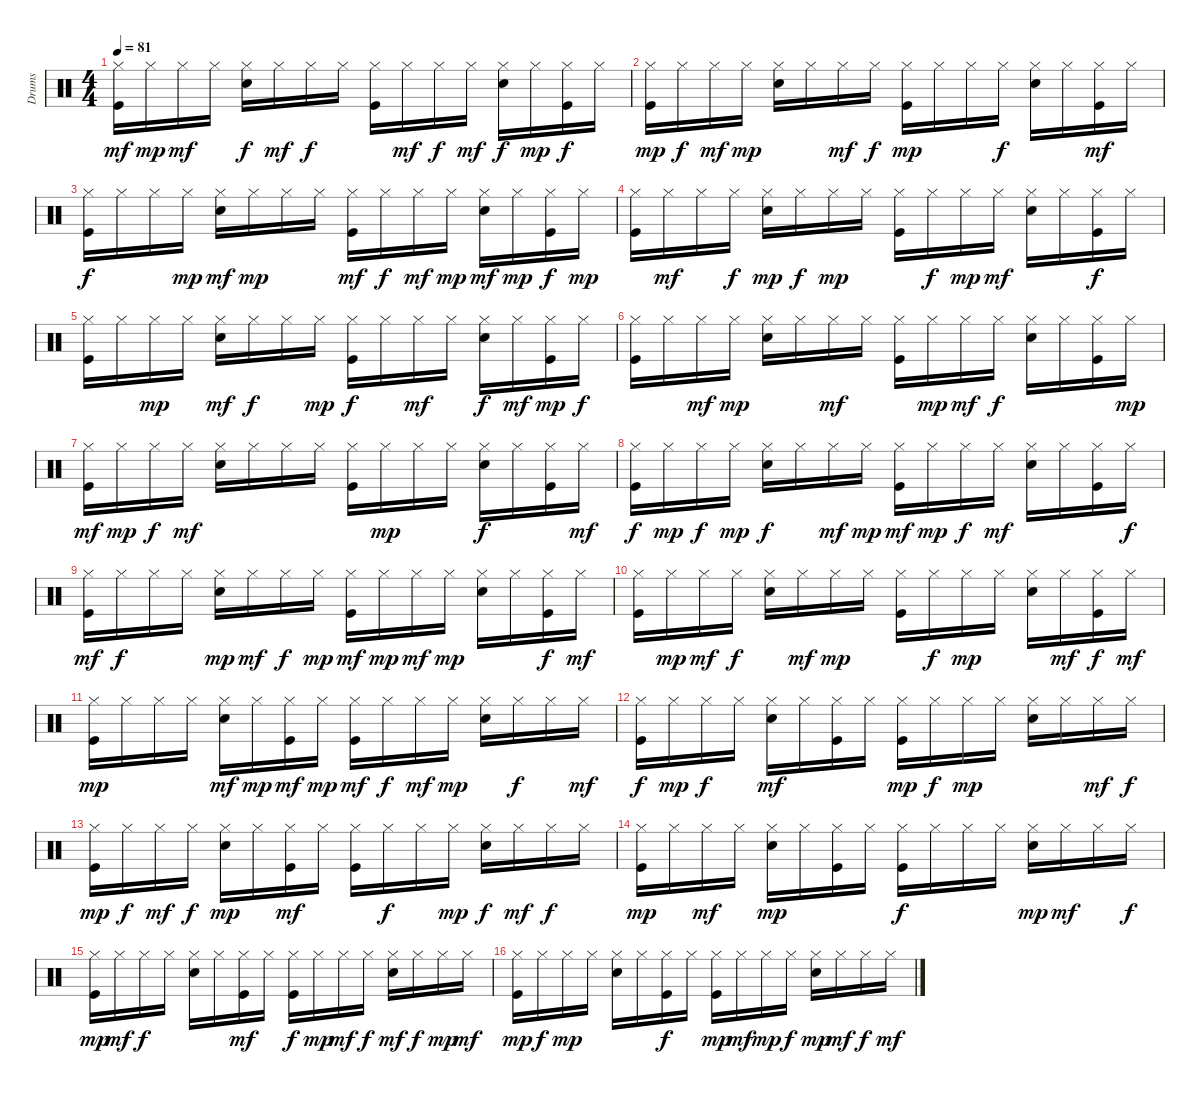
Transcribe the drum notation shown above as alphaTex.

\track ("Drums" "Drums") {instrument percussion}
\staff {score}
\articulation defaults
\ts (4 4)
\tempo 81
\clef neutral
\ks c
("Kick (hit)" "Hi-Hat (closed)").16{dy mf} "Hi-Hat (closed)".16{dy mp} "Hi-Hat (closed)".16{dy mf} "Hi-Hat (closed)".16 ("Electric Snare (hit)" "Hi-Hat (closed)").16{dy f} "Hi-Hat (closed)".16{dy mf} "Hi-Hat (closed)".16{dy f} "Hi-Hat (closed)".16 ("Kick (hit)" "Hi-Hat (closed)").16 "Hi-Hat (closed)".16{dy mf} "Hi-Hat (closed)".16{dy f} "Hi-Hat (closed)".16{dy mf} ("Electric Snare (hit)" "Hi-Hat (closed)").16{dy f} "Hi-Hat (closed)".16{dy mp} ("Kick (hit)" "Hi-Hat (closed)").16{dy f} "Hi-Hat (closed)".16 |
("Kick (hit)" "Hi-Hat (closed)").16{dy mp} "Hi-Hat (closed)".16{dy f} "Hi-Hat (closed)".16{dy mf} "Hi-Hat (closed)".16{dy mp} ("Electric Snare (hit)" "Hi-Hat (closed)").16 "Hi-Hat (closed)".16 "Hi-Hat (closed)".16{dy mf} "Hi-Hat (closed)".16{dy f} ("Kick (hit)" "Hi-Hat (closed)").16{dy mp} "Hi-Hat (closed)".16 "Hi-Hat (closed)".16 "Hi-Hat (closed)".16{dy f} ("Electric Snare (hit)" "Hi-Hat (closed)").16 "Hi-Hat (closed)".16 ("Kick (hit)" "Hi-Hat (closed)").16{dy mf} "Hi-Hat (closed)".16 |
("Kick (hit)" "Hi-Hat (closed)").16{dy f} "Hi-Hat (closed)".16 "Hi-Hat (closed)".16 "Hi-Hat (closed)".16{dy mp} ("Electric Snare (hit)" "Hi-Hat (closed)").16{dy mf} "Hi-Hat (closed)".16{dy mp} "Hi-Hat (closed)".16 "Hi-Hat (closed)".16 ("Kick (hit)" "Hi-Hat (closed)").16{dy mf} "Hi-Hat (closed)".16{dy f} "Hi-Hat (closed)".16{dy mf} "Hi-Hat (closed)".16{dy mp} ("Electric Snare (hit)" "Hi-Hat (closed)").16{dy mf} "Hi-Hat (closed)".16{dy mp} ("Kick (hit)" "Hi-Hat (closed)").16{dy f} "Hi-Hat (closed)".16{dy mp} |
("Kick (hit)" "Hi-Hat (closed)").16 "Hi-Hat (closed)".16{dy mf} "Hi-Hat (closed)".16 "Hi-Hat (closed)".16{dy f} ("Electric Snare (hit)" "Hi-Hat (closed)").16{dy mp} "Hi-Hat (closed)".16{dy f} "Hi-Hat (closed)".16{dy mp} "Hi-Hat (closed)".16 ("Kick (hit)" "Hi-Hat (closed)").16 "Hi-Hat (closed)".16{dy f} "Hi-Hat (closed)".16{dy mp} "Hi-Hat (closed)".16{dy mf} ("Electric Snare (hit)" "Hi-Hat (closed)").16 "Hi-Hat (closed)".16 ("Kick (hit)" "Hi-Hat (closed)").16{dy f} "Hi-Hat (closed)".16 |
("Kick (hit)" "Hi-Hat (closed)").16 "Hi-Hat (closed)".16 "Hi-Hat (closed)".16{dy mp} "Hi-Hat (closed)".16 ("Electric Snare (hit)" "Hi-Hat (closed)").16{dy mf} "Hi-Hat (closed)".16{dy f} "Hi-Hat (closed)".16 "Hi-Hat (closed)".16{dy mp} ("Kick (hit)" "Hi-Hat (closed)").16{dy f} "Hi-Hat (closed)".16 "Hi-Hat (closed)".16{dy mf} "Hi-Hat (closed)".16 ("Electric Snare (hit)" "Hi-Hat (closed)").16{dy f} "Hi-Hat (closed)".16{dy mf} ("Kick (hit)" "Hi-Hat (closed)").16{dy mp} "Hi-Hat (closed)".16{dy f} |
("Kick (hit)" "Hi-Hat (closed)").16 "Hi-Hat (closed)".16 "Hi-Hat (closed)".16{dy mf} "Hi-Hat (closed)".16{dy mp} ("Electric Snare (hit)" "Hi-Hat (closed)").16 "Hi-Hat (closed)".16 "Hi-Hat (closed)".16{dy mf} "Hi-Hat (closed)".16 ("Kick (hit)" "Hi-Hat (closed)").16 "Hi-Hat (closed)".16{dy mp} "Hi-Hat (closed)".16{dy mf} "Hi-Hat (closed)".16{dy f} ("Electric Snare (hit)" "Hi-Hat (closed)").16 "Hi-Hat (closed)".16 ("Kick (hit)" "Hi-Hat (closed)").16 "Hi-Hat (closed)".16{dy mp} |
("Kick (hit)" "Hi-Hat (closed)").16{dy mf} "Hi-Hat (closed)".16{dy mp} "Hi-Hat (closed)".16{dy f} "Hi-Hat (closed)".16{dy mf} ("Electric Snare (hit)" "Hi-Hat (closed)").16 "Hi-Hat (closed)".16 "Hi-Hat (closed)".16 "Hi-Hat (closed)".16 ("Kick (hit)" "Hi-Hat (closed)").16 "Hi-Hat (closed)".16{dy mp} "Hi-Hat (closed)".16 "Hi-Hat (closed)".16 ("Electric Snare (hit)" "Hi-Hat (closed)").16{dy f} "Hi-Hat (closed)".16 ("Kick (hit)" "Hi-Hat (closed)").16 "Hi-Hat (closed)".16{dy mf} |
("Kick (hit)" "Hi-Hat (closed)").16{dy f} "Hi-Hat (closed)".16{dy mp} "Hi-Hat (closed)".16{dy f} "Hi-Hat (closed)".16{dy mp} ("Electric Snare (hit)" "Hi-Hat (closed)").16{dy f} "Hi-Hat (closed)".16 "Hi-Hat (closed)".16{dy mf} "Hi-Hat (closed)".16{dy mp} ("Kick (hit)" "Hi-Hat (closed)").16{dy mf} "Hi-Hat (closed)".16{dy mp} "Hi-Hat (closed)".16{dy f} "Hi-Hat (closed)".16{dy mf} ("Electric Snare (hit)" "Hi-Hat (closed)").16 "Hi-Hat (closed)".16 ("Kick (hit)" "Hi-Hat (closed)").16 "Hi-Hat (closed)".16{dy f} |
("Kick (hit)" "Hi-Hat (closed)").16{dy mf} "Hi-Hat (closed)".16{dy f} "Hi-Hat (closed)".16 "Hi-Hat (closed)".16 ("Electric Snare (hit)" "Hi-Hat (closed)").16{dy mp} "Hi-Hat (closed)".16{dy mf} "Hi-Hat (closed)".16{dy f} "Hi-Hat (closed)".16{dy mp} ("Kick (hit)" "Hi-Hat (closed)").16{dy mf} "Hi-Hat (closed)".16{dy mp} "Hi-Hat (closed)".16{dy mf} "Hi-Hat (closed)".16{dy mp} ("Electric Snare (hit)" "Hi-Hat (closed)").16 "Hi-Hat (closed)".16 ("Kick (hit)" "Hi-Hat (closed)").16{dy f} "Hi-Hat (closed)".16{dy mf} |
("Kick (hit)" "Hi-Hat (closed)").16 "Hi-Hat (closed)".16{dy mp} "Hi-Hat (closed)".16{dy mf} "Hi-Hat (closed)".16{dy f} ("Electric Snare (hit)" "Hi-Hat (closed)").16 "Hi-Hat (closed)".16{dy mf} "Hi-Hat (closed)".16{dy mp} "Hi-Hat (closed)".16 ("Kick (hit)" "Hi-Hat (closed)").16 "Hi-Hat (closed)".16{dy f} "Hi-Hat (closed)".16{dy mp} "Hi-Hat (closed)".16 ("Electric Snare (hit)" "Hi-Hat (closed)").16 "Hi-Hat (closed)".16{dy mf} ("Kick (hit)" "Hi-Hat (closed)").16{dy f} "Hi-Hat (closed)".16{dy mf} |
("Kick (hit)" "Hi-Hat (closed)").16{dy mp} "Hi-Hat (closed)".16 "Hi-Hat (closed)".16 "Hi-Hat (closed)".16 ("Electric Snare (hit)" "Hi-Hat (closed)").16{dy mf} "Hi-Hat (closed)".16{dy mp} ("Kick (hit)" "Hi-Hat (closed)").16{dy mf} "Hi-Hat (closed)".16{dy mp} ("Kick (hit)" "Hi-Hat (closed)").16{dy mf} "Hi-Hat (closed)".16{dy f} "Hi-Hat (closed)".16{dy mf} "Hi-Hat (closed)".16{dy mp} ("Electric Snare (hit)" "Hi-Hat (closed)").16 "Hi-Hat (closed)".16{dy f} "Hi-Hat (closed)".16 "Hi-Hat (closed)".16{dy mf} |
("Kick (hit)" "Hi-Hat (closed)").16{dy f} "Hi-Hat (closed)".16{dy mp} "Hi-Hat (closed)".16{dy f} "Hi-Hat (closed)".16 ("Electric Snare (hit)" "Hi-Hat (closed)").16{dy mf} "Hi-Hat (closed)".16 ("Kick (hit)" "Hi-Hat (closed)").16 "Hi-Hat (closed)".16 ("Kick (hit)" "Hi-Hat (closed)").16{dy mp} "Hi-Hat (closed)".16{dy f} "Hi-Hat (closed)".16{dy mp} "Hi-Hat (closed)".16 ("Electric Snare (hit)" "Hi-Hat (closed)").16 "Hi-Hat (closed)".16 "Hi-Hat (closed)".16{dy mf} "Hi-Hat (closed)".16{dy f} |
("Kick (hit)" "Hi-Hat (closed)").16{dy mp} "Hi-Hat (closed)".16{dy f} "Hi-Hat (closed)".16{dy mf} "Hi-Hat (closed)".16{dy f} ("Electric Snare (hit)" "Hi-Hat (closed)").16{dy mp} "Hi-Hat (closed)".16 ("Kick (hit)" "Hi-Hat (closed)").16{dy mf} "Hi-Hat (closed)".16 ("Kick (hit)" "Hi-Hat (closed)").16 "Hi-Hat (closed)".16{dy f} "Hi-Hat (closed)".16 "Hi-Hat (closed)".16{dy mp} ("Electric Snare (hit)" "Hi-Hat (closed)").16{dy f} "Hi-Hat (closed)".16{dy mf} "Hi-Hat (closed)".16{dy f} "Hi-Hat (closed)".16 |
("Kick (hit)" "Hi-Hat (closed)").16{dy mp} "Hi-Hat (closed)".16 "Hi-Hat (closed)".16{dy mf} "Hi-Hat (closed)".16 ("Electric Snare (hit)" "Hi-Hat (closed)").16{dy mp} "Hi-Hat (closed)".16 ("Kick (hit)" "Hi-Hat (closed)").16 "Hi-Hat (closed)".16 ("Kick (hit)" "Hi-Hat (closed)").16{dy f} "Hi-Hat (closed)".16 "Hi-Hat (closed)".16 "Hi-Hat (closed)".16 ("Electric Snare (hit)" "Hi-Hat (closed)").16{dy mp} "Hi-Hat (closed)".16{dy mf} "Hi-Hat (closed)".16 "Hi-Hat (closed)".16{dy f} |
("Kick (hit)" "Hi-Hat (closed)").16{dy mp} "Hi-Hat (closed)".16{dy mf} "Hi-Hat (closed)".16{dy f} "Hi-Hat (closed)".16 ("Electric Snare (hit)" "Hi-Hat (closed)").16 "Hi-Hat (closed)".16 ("Kick (hit)" "Hi-Hat (closed)").16{dy mf} "Hi-Hat (closed)".16 ("Kick (hit)" "Hi-Hat (closed)").16{dy f} "Hi-Hat (closed)".16{dy mp} "Hi-Hat (closed)".16{dy mf} "Hi-Hat (closed)".16{dy f} ("Electric Snare (hit)" "Hi-Hat (closed)").16{dy mf} "Hi-Hat (closed)".16{dy f} "Hi-Hat (closed)".16{dy mp} "Hi-Hat (closed)".16{dy mf} |
("Kick (hit)" "Hi-Hat (closed)").16{dy mp} "Hi-Hat (closed)".16{dy f} "Hi-Hat (closed)".16{dy mp} "Hi-Hat (closed)".16 ("Electric Snare (hit)" "Hi-Hat (closed)").16 "Hi-Hat (closed)".16 ("Kick (hit)" "Hi-Hat (closed)").16{dy f} "Hi-Hat (closed)".16 ("Kick (hit)" "Hi-Hat (closed)").16{dy mp} "Hi-Hat (closed)".16{dy mf} "Hi-Hat (closed)".16{dy mp} "Hi-Hat (closed)".16{dy f} ("Electric Snare (hit)" "Hi-Hat (closed)").16{dy mp} "Hi-Hat (closed)".16{dy mf} "Hi-Hat (closed)".16{dy f} "Hi-Hat (closed)".16{dy mf}
